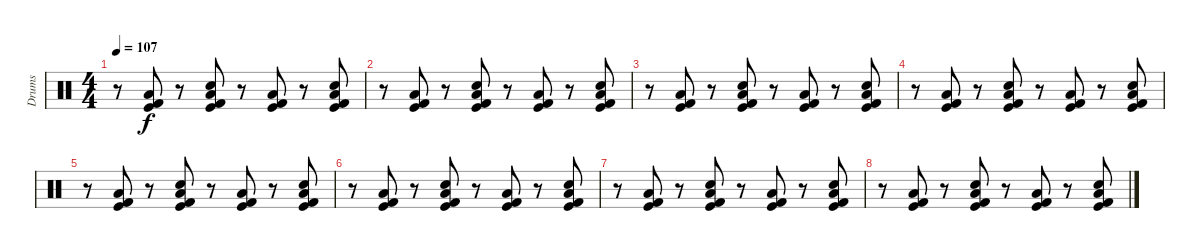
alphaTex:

\track ("Drums" "Drums") {instrument percussion}
\staff {score}
\articulation defaults
\ts (4 4)
\tempo 107
\clef neutral
\ks c
r.8{dy f volume 4} ("Kick (hit)" "Low Floor Tom (hit)" "Kick (hit) 2").8 r.8 ("Electric Snare (hit)" "Kick (hit)" "Low Floor Tom (hit)" "Kick (hit) 2").8 r.8 ("Kick (hit)" "Low Floor Tom (hit)" "Kick (hit) 2").8 r.8 ("Electric Snare (hit)" "Kick (hit)" "Low Floor Tom (hit)" "Kick (hit) 2").8 |
r.8 ("Kick (hit)" "Low Floor Tom (hit)" "Kick (hit) 2").8 r.8 ("Electric Snare (hit)" "Kick (hit)" "Low Floor Tom (hit)" "Kick (hit) 2").8 r.8 ("Kick (hit)" "Low Floor Tom (hit)" "Kick (hit) 2").8 r.8 ("Electric Snare (hit)" "Kick (hit)" "Low Floor Tom (hit)" "Kick (hit) 2").8 |
r.8 ("Kick (hit)" "Low Floor Tom (hit)" "Kick (hit) 2").8 r.8 ("Electric Snare (hit)" "Kick (hit)" "Low Floor Tom (hit)" "Kick (hit) 2").8 r.8 ("Kick (hit)" "Low Floor Tom (hit)" "Kick (hit) 2").8 r.8 ("Electric Snare (hit)" "Kick (hit)" "Low Floor Tom (hit)" "Kick (hit) 2").8 |
r.8 ("Kick (hit)" "Low Floor Tom (hit)" "Kick (hit) 2").8 r.8 ("Electric Snare (hit)" "Kick (hit)" "Low Floor Tom (hit)" "Kick (hit) 2").8 r.8 ("Kick (hit)" "Low Floor Tom (hit)" "Kick (hit) 2").8 r.8 ("Electric Snare (hit)" "Kick (hit)" "Low Floor Tom (hit)" "Kick (hit) 2").8 |
r.8{volume 0} ("Kick (hit)" "Low Floor Tom (hit)" "Kick (hit) 2").8 r.8 ("Electric Snare (hit)" "Kick (hit)" "Low Floor Tom (hit)" "Kick (hit) 2").8 r.8 ("Kick (hit)" "Low Floor Tom (hit)" "Kick (hit) 2").8 r.8 ("Electric Snare (hit)" "Kick (hit)" "Low Floor Tom (hit)" "Kick (hit) 2").8 |
r.8 ("Kick (hit)" "Low Floor Tom (hit)" "Kick (hit) 2").8 r.8 ("Electric Snare (hit)" "Kick (hit)" "Low Floor Tom (hit)" "Kick (hit) 2").8 r.8 ("Kick (hit)" "Low Floor Tom (hit)" "Kick (hit) 2").8 r.8 ("Electric Snare (hit)" "Kick (hit)" "Low Floor Tom (hit)" "Kick (hit) 2").8 |
r.8 ("Kick (hit)" "Low Floor Tom (hit)" "Kick (hit) 2").8 r.8 ("Electric Snare (hit)" "Kick (hit)" "Low Floor Tom (hit)" "Kick (hit) 2").8 r.8 ("Kick (hit)" "Low Floor Tom (hit)" "Kick (hit) 2").8 r.8 ("Electric Snare (hit)" "Kick (hit)" "Low Floor Tom (hit)" "Kick (hit) 2").8 |
r.8 ("Kick (hit)" "Low Floor Tom (hit)" "Kick (hit) 2").8 r.8 ("Electric Snare (hit)" "Kick (hit)" "Low Floor Tom (hit)" "Kick (hit) 2").8 r.8 ("Kick (hit)" "Low Floor Tom (hit)" "Kick (hit) 2").8 r.8 ("Electric Snare (hit)" "Kick (hit)" "Low Floor Tom (hit)" "Kick (hit) 2").8
